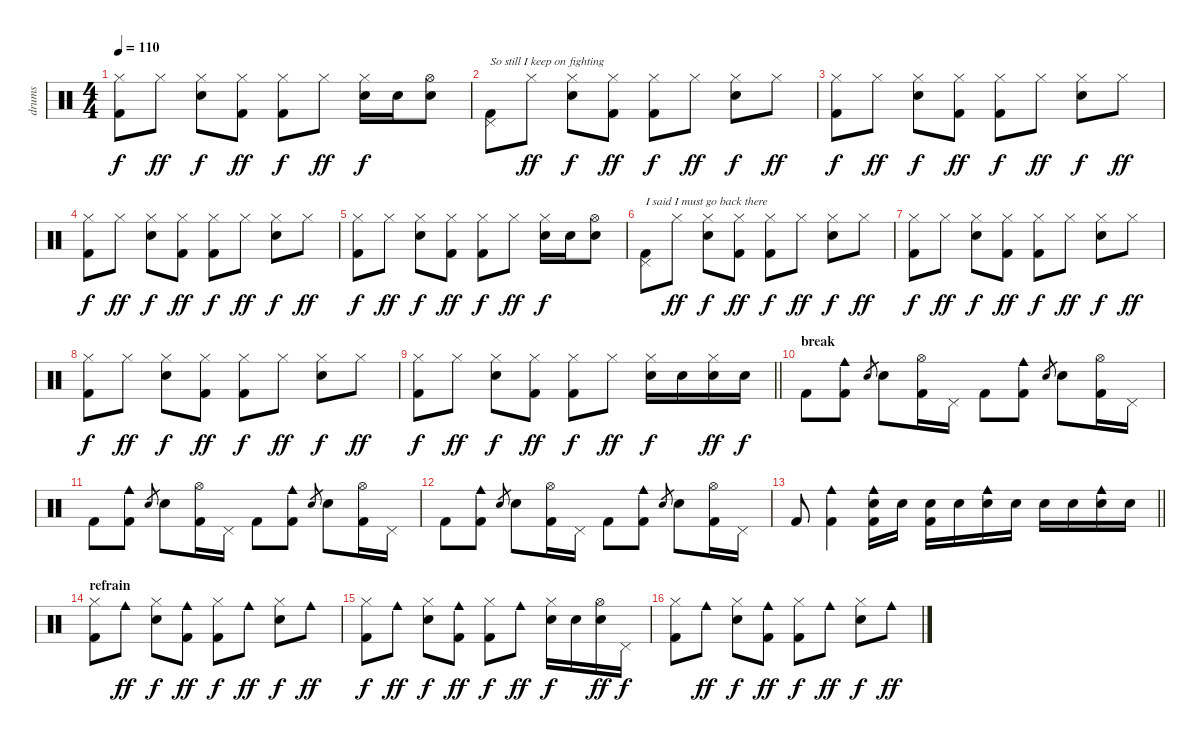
\track ("drums" "drums") {instrument percussion}
\staff {score}
\articulation defaults
\ts (4 4)
\tempo 110
\clef neutral
\ks aminor
("Hi-Hat (closed)" "Kick (hit) 2").8{dy f} "Hi-Hat (closed)".8{dy ff} ("Hi-Hat (closed)" "Snare (hit) 2").8{dy f} ("Hi-Hat (closed)" "Kick (hit) 2").8{dy ff} ("Hi-Hat (closed)" "Kick (hit) 2").8{dy f} "Hi-Hat (closed)".8{dy ff} ("Hi-Hat (closed)" "Snare (hit) 2").16{dy f} "Snare (hit) 2".16 ("Hi-Hat (open)" "Snare (hit) 2").8 |
("Pedal Hi-Hat (hit)" "Kick (hit) 2").8{txt "So still I keep on fighting"} "Hi-Hat (closed)".8{dy ff} ("Hi-Hat (closed)" "Snare (hit) 2").8{dy f} ("Hi-Hat (closed)" "Kick (hit) 2").8{dy ff} ("Hi-Hat (closed)" "Kick (hit) 2").8{dy f} "Hi-Hat (closed)".8{dy ff} ("Hi-Hat (closed)" "Snare (hit) 2").8{dy f} "Hi-Hat (closed)".8{dy ff} |
("Hi-Hat (closed)" "Kick (hit) 2").8{dy f} "Hi-Hat (closed)".8{dy ff} ("Hi-Hat (closed)" "Snare (hit) 2").8{dy f} ("Hi-Hat (closed)" "Kick (hit) 2").8{dy ff} ("Hi-Hat (closed)" "Kick (hit) 2").8{dy f} "Hi-Hat (closed)".8{dy ff} ("Hi-Hat (closed)" "Snare (hit) 2").8{dy f} "Hi-Hat (closed)".8{dy ff} |
("Hi-Hat (closed)" "Kick (hit) 2").8{dy f} "Hi-Hat (closed)".8{dy ff} ("Hi-Hat (closed)" "Snare (hit) 2").8{dy f} ("Hi-Hat (closed)" "Kick (hit) 2").8{dy ff} ("Hi-Hat (closed)" "Kick (hit) 2").8{dy f} "Hi-Hat (closed)".8{dy ff} ("Hi-Hat (closed)" "Snare (hit) 2").8{dy f} "Hi-Hat (closed)".8{dy ff} |
("Hi-Hat (closed)" "Kick (hit) 2").8{dy f} "Hi-Hat (closed)".8{dy ff} ("Hi-Hat (closed)" "Snare (hit) 2").8{dy f} ("Hi-Hat (closed)" "Kick (hit) 2").8{dy ff} ("Hi-Hat (closed)" "Kick (hit) 2").8{dy f} "Hi-Hat (closed)".8{dy ff} ("Hi-Hat (closed)" "Snare (hit) 2").16{dy f} "Snare (hit) 2".16 ("Hi-Hat (open)" "Snare (hit) 2").8 |
("Pedal Hi-Hat (hit)" "Kick (hit) 2").8{txt "I said I must go back there"} "Hi-Hat (closed)".8{dy ff} ("Hi-Hat (closed)" "Snare (hit) 2").8{dy f} ("Hi-Hat (closed)" "Kick (hit) 2").8{dy ff} ("Hi-Hat (closed)" "Kick (hit) 2").8{dy f} "Hi-Hat (closed)".8{dy ff} ("Hi-Hat (closed)" "Snare (hit) 2").8{dy f} "Hi-Hat (closed)".8{dy ff} |
("Hi-Hat (closed)" "Kick (hit) 2").8{dy f} "Hi-Hat (closed)".8{dy ff} ("Hi-Hat (closed)" "Snare (hit) 2").8{dy f} ("Hi-Hat (closed)" "Kick (hit) 2").8{dy ff} ("Hi-Hat (closed)" "Kick (hit) 2").8{dy f} "Hi-Hat (closed)".8{dy ff} ("Hi-Hat (closed)" "Snare (hit) 2").8{dy f} "Hi-Hat (closed)".8{dy ff} |
("Hi-Hat (closed)" "Kick (hit) 2").8{dy f} "Hi-Hat (closed)".8{dy ff} ("Hi-Hat (closed)" "Snare (hit) 2").8{dy f} ("Hi-Hat (closed)" "Kick (hit) 2").8{dy ff} ("Hi-Hat (closed)" "Kick (hit) 2").8{dy f} "Hi-Hat (closed)".8{dy ff} ("Hi-Hat (closed)" "Snare (hit) 2").8{dy f} "Hi-Hat (closed)".8{dy ff} |
\barLineRight lightlight
("Hi-Hat (closed)" "Kick (hit) 2").8{dy f} "Hi-Hat (closed)".8{dy ff} ("Hi-Hat (closed)" "Snare (hit) 2").8{dy f} ("Hi-Hat (closed)" "Kick (hit) 2").8{dy ff} ("Hi-Hat (closed)" "Kick (hit) 2").8{dy f} "Hi-Hat (closed)".8{dy ff} ("Hi-Hat (closed)" "Snare (hit) 2").16{dy f} "Snare (hit) 2".16 ("Hi-Hat (closed)" "Snare (hit) 2").16{dy ff} "Snare (hit) 2".16{dy f} |
\section ("" "break")
"Kick (hit) 2".8 ("Cowbell medium (hit)" "Kick (hit) 2").8 "Hand Clap (hit)".8{gr} "Hand Clap (hit)".8 ("Hi-Hat (open)" "Kick (hit) 2").16 "Pedal Hi-Hat (hit)".16 "Kick (hit) 2".8 ("Cowbell medium (hit)" "Kick (hit) 2").8 "Hand Clap (hit)".8{gr} "Hand Clap (hit)".8 ("Hi-Hat (open)" "Kick (hit) 2").16 "Pedal Hi-Hat (hit)".16 |
"Kick (hit) 2".8 ("Cowbell medium (hit)" "Kick (hit) 2").8 "Hand Clap (hit)".8{gr} "Hand Clap (hit)".8 ("Hi-Hat (open)" "Kick (hit) 2").16 "Pedal Hi-Hat (hit)".16 "Kick (hit) 2".8 ("Cowbell medium (hit)" "Kick (hit) 2").8 "Hand Clap (hit)".8{gr} "Hand Clap (hit)".8 ("Hi-Hat (open)" "Kick (hit) 2").16 "Pedal Hi-Hat (hit)".16 |
"Kick (hit) 2".8 ("Cowbell medium (hit)" "Kick (hit) 2").8 "Hand Clap (hit)".8{gr} "Hand Clap (hit)".8 ("Hi-Hat (open)" "Kick (hit) 2").16 "Pedal Hi-Hat (hit)".16 "Kick (hit) 2".8 ("Cowbell medium (hit)" "Kick (hit) 2").8 "Hand Clap (hit)".8{gr} "Hand Clap (hit)".8 ("Hi-Hat (open)" "Kick (hit) 2").16 "Pedal Hi-Hat (hit)".16 |
\barLineRight lightlight "Kick (hit) 2".8
("Cowbell medium (hit)" "Kick (hit) 2").4 ("Cowbell medium (hit)" "Snare (hit) 2" "Kick (hit) 2").16 "Snare (hit) 2".16 ("Snare (hit) 2" "Kick (hit) 2").16 "Snare (hit) 2".16 ("Cowbell medium (hit)" "Snare (hit) 2").16 "Snare (hit) 2".16 "Snare (hit) 2".16 "Snare (hit) 2".16 ("Cowbell medium (hit)" "Snare (hit) 2").16 "Snare (hit) 2".16 |
\section ("" "refrain")
("Hi-Hat (closed)" "Kick (hit) 2").8 "Cowbell medium (hit)".8{dy ff} ("Hi-Hat (closed)" "Snare (hit) 2").8{dy f} ("Cowbell medium (hit)" "Kick (hit) 2").8{dy ff} ("Hi-Hat (closed)" "Kick (hit) 2").8{dy f} "Cowbell medium (hit)".8{dy ff} ("Hi-Hat (closed)" "Snare (hit) 2").8{dy f} "Cowbell medium (hit)".8{dy ff} |
("Hi-Hat (closed)" "Kick (hit) 2").8{dy f} "Cowbell medium (hit)".8{dy ff} ("Hi-Hat (closed)" "Snare (hit) 2").8{dy f} ("Cowbell medium (hit)" "Kick (hit) 2").8{dy ff} ("Hi-Hat (closed)" "Kick (hit) 2").8{dy f} "Cowbell medium (hit)".8{dy ff} ("Hi-Hat (closed)" "Snare (hit) 2").16{dy f} "Snare (hit) 2".16 ("Hi-Hat (open)" "Snare (hit) 2").16{dy ff} "Pedal Hi-Hat (hit)".16{dy f} |
("Hi-Hat (closed)" "Kick (hit) 2").8 "Cowbell medium (hit)".8{dy ff} ("Hi-Hat (closed)" "Snare (hit) 2").8{dy f} ("Cowbell medium (hit)" "Kick (hit) 2").8{dy ff} ("Hi-Hat (closed)" "Kick (hit) 2").8{dy f} "Cowbell medium (hit)".8{dy ff} ("Hi-Hat (closed)" "Snare (hit) 2").8{dy f} "Cowbell medium (hit)".8{dy ff}
